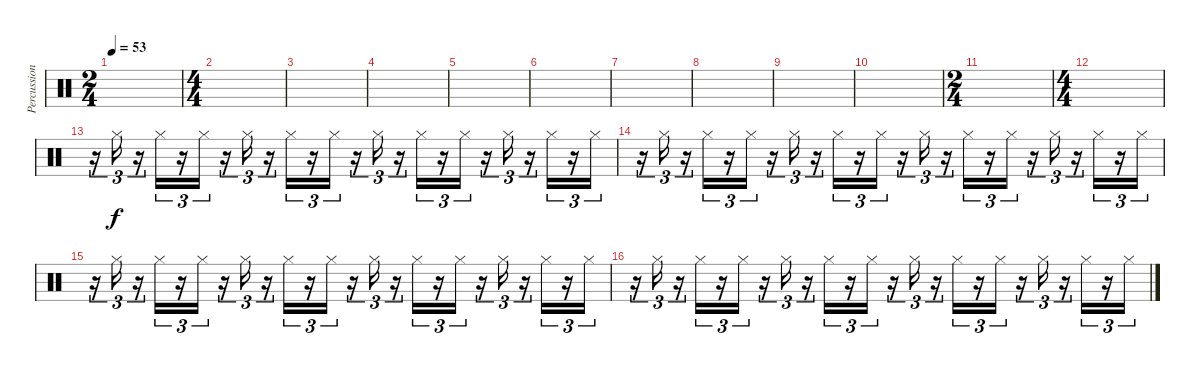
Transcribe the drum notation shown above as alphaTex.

\track ("Percussion" "Percussion") {instrument percussion}
\staff {score}
\articulation defaults
\ts (2 4)
\tempo 53
\clef neutral
\ks c
|
\ts (4 4)
|
|
|
|
|
|
|
|
|
\ts (2 4)
|
\ts (4 4)
|
r.16{tu (3 2) volume 6} "Hi-Hat (closed)".16{tu (3 2)} r.16{tu (3 2)} "Hi-Hat (closed)".16{tu (3 2)} r.16{tu (3 2)} "Hi-Hat (closed)".16{tu (3 2)} r.16{tu (3 2)} "Hi-Hat (closed)".16{tu (3 2)} r.16{tu (3 2)} "Hi-Hat (closed)".16{tu (3 2)} r.16{tu (3 2)} "Hi-Hat (closed)".16{tu (3 2)} r.16{tu (3 2)} "Hi-Hat (closed)".16{tu (3 2)} r.16{tu (3 2)} "Hi-Hat (closed)".16{tu (3 2)} r.16{tu (3 2)} "Hi-Hat (closed)".16{tu (3 2)} r.16{tu (3 2)} "Hi-Hat (closed)".16{tu (3 2)} r.16{tu (3 2)} "Hi-Hat (closed)".16{tu (3 2)} r.16{tu (3 2)} "Hi-Hat (closed)".16{tu (3 2)} |
r.16{tu (3 2) volume 6} "Hi-Hat (closed)".16{tu (3 2)} r.16{tu (3 2)} "Hi-Hat (closed)".16{tu (3 2)} r.16{tu (3 2)} "Hi-Hat (closed)".16{tu (3 2)} r.16{tu (3 2)} "Hi-Hat (closed)".16{tu (3 2)} r.16{tu (3 2)} "Hi-Hat (closed)".16{tu (3 2)} r.16{tu (3 2)} "Hi-Hat (closed)".16{tu (3 2)} r.16{tu (3 2)} "Hi-Hat (closed)".16{tu (3 2)} r.16{tu (3 2)} "Hi-Hat (closed)".16{tu (3 2)} r.16{tu (3 2)} "Hi-Hat (closed)".16{tu (3 2)} r.16{tu (3 2)} "Hi-Hat (closed)".16{tu (3 2)} r.16{tu (3 2)} "Hi-Hat (closed)".16{tu (3 2)} r.16{tu (3 2)} "Hi-Hat (closed)".16{tu (3 2)} |
r.16{tu (3 2) volume 6} "Hi-Hat (closed)".16{tu (3 2)} r.16{tu (3 2)} "Hi-Hat (closed)".16{tu (3 2)} r.16{tu (3 2)} "Hi-Hat (closed)".16{tu (3 2)} r.16{tu (3 2)} "Hi-Hat (closed)".16{tu (3 2)} r.16{tu (3 2)} "Hi-Hat (closed)".16{tu (3 2)} r.16{tu (3 2)} "Hi-Hat (closed)".16{tu (3 2)} r.16{tu (3 2)} "Hi-Hat (closed)".16{tu (3 2)} r.16{tu (3 2)} "Hi-Hat (closed)".16{tu (3 2)} r.16{tu (3 2)} "Hi-Hat (closed)".16{tu (3 2)} r.16{tu (3 2)} "Hi-Hat (closed)".16{tu (3 2)} r.16{tu (3 2)} "Hi-Hat (closed)".16{tu (3 2)} r.16{tu (3 2)} "Hi-Hat (closed)".16{tu (3 2)} |
r.16{tu (3 2) volume 6} "Hi-Hat (closed)".16{tu (3 2)} r.16{tu (3 2)} "Hi-Hat (closed)".16{tu (3 2)} r.16{tu (3 2)} "Hi-Hat (closed)".16{tu (3 2)} r.16{tu (3 2)} "Hi-Hat (closed)".16{tu (3 2)} r.16{tu (3 2)} "Hi-Hat (closed)".16{tu (3 2)} r.16{tu (3 2)} "Hi-Hat (closed)".16{tu (3 2)} r.16{tu (3 2)} "Hi-Hat (closed)".16{tu (3 2)} r.16{tu (3 2)} "Hi-Hat (closed)".16{tu (3 2)} r.16{tu (3 2)} "Hi-Hat (closed)".16{tu (3 2)} r.16{tu (3 2)} "Hi-Hat (closed)".16{tu (3 2)} r.16{tu (3 2)} "Hi-Hat (closed)".16{tu (3 2)} r.16{tu (3 2)} "Hi-Hat (closed)".16{tu (3 2)}
